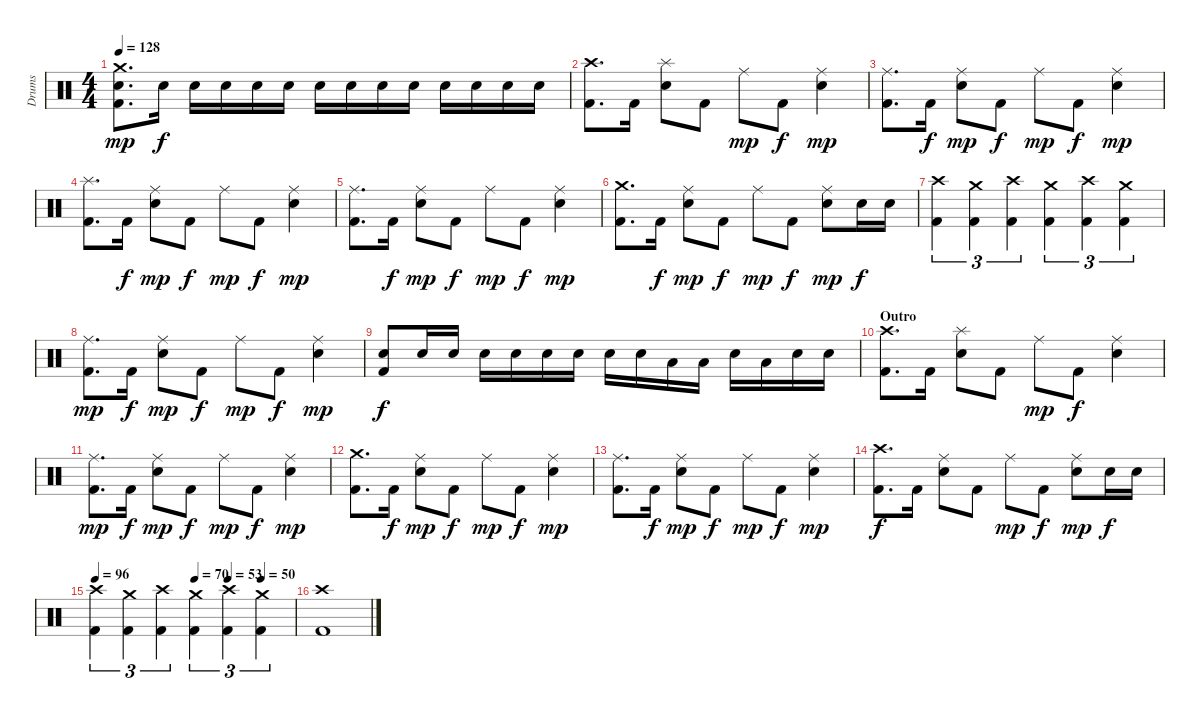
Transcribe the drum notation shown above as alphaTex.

\track ("Drums" "Drums") {instrument percussion}
\staff {score}
\articulation defaults
\ts (4 4)
\tempo 128
\clef neutral
\ks c
("Crash medium (hit)" "Electric Snare (hit)" "Kick (hit) 2").8{d dy mp} "Electric Snare (hit)".16{dy f} "Electric Snare (hit)".16 "Electric Snare (hit)".16 "Electric Snare (hit)".16 "Electric Snare (hit)".16 "Electric Snare (hit)".16 "Electric Snare (hit)".16 "Electric Snare (hit)".16 "Electric Snare (hit)".16 "Electric Snare (hit)".16 "Electric Snare (hit)".16 "Electric Snare (hit)".16 "Electric Snare (hit)".16 |
("Crash high (hit)" "Kick (hit) 2").8{d} "Kick (hit) 2".16 ("Splash (hit)" "Electric Snare (hit)").8 "Kick (hit) 2".8 "Ride (middle)".8{dy mp} "Kick (hit) 2".8{dy f} ("Ride (middle)" "Electric Snare (hit)").4{dy mp} |
("Ride (middle)" "Kick (hit) 2").8{d} "Kick (hit) 2".16{dy f} ("Ride (middle)" "Electric Snare (hit)").8{dy mp} "Kick (hit) 2".8{dy f} "Ride (middle)".8{dy mp} "Kick (hit) 2".8{dy f} ("Ride (middle)" "Electric Snare (hit)").4{dy mp} |
("Splash (hit)" "Kick (hit) 2").8{d} "Kick (hit) 2".16{dy f} ("Ride (middle)" "Electric Snare (hit)").8{dy mp} "Kick (hit) 2".8{dy f} "Ride (middle)".8{dy mp} "Kick (hit) 2".8{dy f} ("Ride (middle)" "Electric Snare (hit)").4{dy mp} |
("Ride (middle)" "Kick (hit) 2").8{d} "Kick (hit) 2".16{dy f} ("Ride (middle)" "Electric Snare (hit)").8{dy mp} "Kick (hit) 2".8{dy f} "Ride (middle)".8{dy mp} "Kick (hit) 2".8{dy f} ("Ride (middle)" "Electric Snare (hit)").4{dy mp} |
("Crash medium (hit)" "Kick (hit) 2").8{d} "Kick (hit) 2".16{dy f} ("Ride (middle)" "Electric Snare (hit)").8{dy mp} "Kick (hit) 2".8{dy f} "Ride (middle)".8{dy mp} "Kick (hit) 2".8{dy f} ("Ride (middle)" "Electric Snare (hit)").8{dy mp} "Electric Snare (hit)".16{dy f} "Electric Snare (hit)".16 |
("Crash high (hit)" "Kick (hit) 2").4{tu (3 2)} ("Crash medium (hit)" "Kick (hit) 2").4{tu (3 2)} ("Crash high (hit)" "Kick (hit) 2").4{tu (3 2)} ("Crash medium (hit)" "Kick (hit) 2").4{tu (3 2)} ("Crash high (hit)" "Kick (hit) 2").4{tu (3 2)} ("Crash medium (hit)" "Kick (hit) 2").4{tu (3 2)} |
("Ride (middle)" "Kick (hit) 2").8{d dy mp} "Kick (hit) 2".16{dy f} ("Ride (middle)" "Electric Snare (hit)").8{dy mp} "Kick (hit) 2".8{dy f} "Ride (middle)".8{dy mp} "Kick (hit) 2".8{dy f} ("Ride (middle)" "Electric Snare (hit)").4{dy mp} |
("Electric Snare (hit)" "Kick (hit) 2").8{dy f} "Electric Snare (hit)".16 "Electric Snare (hit)".16 "Electric Snare (hit)".16 "Electric Snare (hit)".16 "Electric Snare (hit)".16 "Electric Snare (hit)".16 "Electric Snare (hit)".16 "Electric Snare (hit)".16 "Low Tom (hit)".16 "Low Tom (hit)".16 "Electric Snare (hit)".16 "Low Tom (hit)".16 "Electric Snare (hit)".16 "Electric Snare (hit)".16 |
\section ("" "Outro")
("Crash high (hit)" "Kick (hit) 2").8{d} "Kick (hit) 2".16 ("Splash (hit)" "Electric Snare (hit)").8 "Kick (hit) 2".8 "Ride (middle)".8{dy mp} "Kick (hit) 2".8{dy f} ("Ride (middle)" "Electric Snare (hit)").4 |
("Ride (middle)" "Kick (hit) 2").8{d dy mp} "Kick (hit) 2".16{dy f} ("Ride (middle)" "Electric Snare (hit)").8{dy mp} "Kick (hit) 2".8{dy f} "Ride (middle)".8{dy mp} "Kick (hit) 2".8{dy f} ("Ride (middle)" "Electric Snare (hit)").4{dy mp} |
("Crash medium (hit)" "Kick (hit) 2").8{d} "Kick (hit) 2".16{dy f} ("Ride (middle)" "Electric Snare (hit)").8{dy mp} "Kick (hit) 2".8{dy f} "Ride (middle)".8{dy mp} "Kick (hit) 2".8{dy f} ("Ride (middle)" "Electric Snare (hit)").4{dy mp} |
("Ride (middle)" "Kick (hit) 2").8{d} "Kick (hit) 2".16{dy f} ("Ride (middle)" "Electric Snare (hit)").8{dy mp} "Kick (hit) 2".8{dy f} "Ride (middle)".8{dy mp} "Kick (hit) 2".8{dy f} ("Ride (middle)" "Electric Snare (hit)").4{dy mp} |
("Crash high (hit)" "Kick (hit) 2").8{d dy f} "Kick (hit) 2".16 ("Ride (middle)" "Electric Snare (hit)").8 "Kick (hit) 2".8 "Ride (middle)".8{dy mp} "Kick (hit) 2".8{dy f} ("Ride (middle)" "Electric Snare (hit)").8{dy mp} "Electric Snare (hit)".16{dy f} "Electric Snare (hit)".16 |
\tempo 96
\tempo (70 0.5)
\tempo (53 0.6666666666666666)
\tempo (50 0.8333333333333334)
("Crash high (hit)" "Kick (hit) 2").4{tu (3 2)} ("Crash medium (hit)" "Kick (hit) 2").4{tu (3 2)} ("Crash high (hit)" "Kick (hit) 2").4{tu (3 2)} ("Crash medium (hit)" "Kick (hit) 2").4{tu (3 2)} ("Crash high (hit)" "Kick (hit) 2").4{tu (3 2)} ("Crash medium (hit)" "Kick (hit) 2").4{tu (3 2)} |
("Crash high (hit)" "Kick (hit) 2").1
